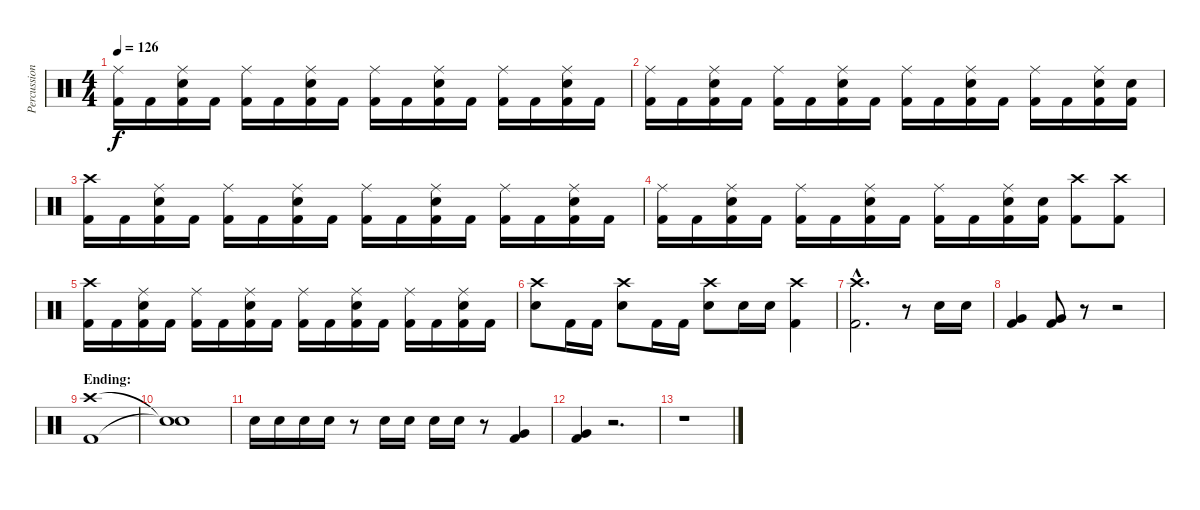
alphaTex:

\track ("Percussion" "Percussion") {instrument percussion}
\staff {score}
\articulation defaults
\ts (4 4)
\tempo 126
\clef neutral
\ks c
("Ride (middle)" "Kick (hit) 2").16{dy f} "Kick (hit) 2".16 ("Ride (middle)" "Electric Snare (hit)" "Kick (hit) 2").16 "Kick (hit) 2".16 ("Ride (middle)" "Kick (hit) 2").16 "Kick (hit) 2".16 ("Ride (middle)" "Electric Snare (hit)" "Kick (hit) 2").16 "Kick (hit) 2".16 ("Ride (middle)" "Kick (hit) 2").16 "Kick (hit) 2".16 ("Ride (middle)" "Electric Snare (hit)" "Kick (hit) 2").16 "Kick (hit) 2".16 ("Ride (middle)" "Kick (hit) 2").16 "Kick (hit) 2".16 ("Ride (middle)" "Electric Snare (hit)" "Kick (hit) 2").16 "Kick (hit) 2".16 |
("Ride (middle)" "Kick (hit) 2").16 "Kick (hit) 2".16 ("Ride (middle)" "Electric Snare (hit)" "Kick (hit) 2").16 "Kick (hit) 2".16 ("Ride (middle)" "Kick (hit) 2").16 "Kick (hit) 2".16 ("Ride (middle)" "Electric Snare (hit)" "Kick (hit) 2").16 "Kick (hit) 2".16 ("Ride (middle)" "Kick (hit) 2").16 "Kick (hit) 2".16 ("Ride (middle)" "Electric Snare (hit)" "Kick (hit) 2").16 "Kick (hit) 2".16 ("Ride (middle)" "Kick (hit) 2").16 "Kick (hit) 2".16 ("Ride (middle)" "Electric Snare (hit)" "Kick (hit) 2").16 ("Electric Snare (hit)" "Kick (hit) 2").16 |
("Crash high (hit)" "Kick (hit) 2").16 "Kick (hit) 2".16 ("Ride (middle)" "Electric Snare (hit)" "Kick (hit) 2").16 "Kick (hit) 2".16 ("Ride (middle)" "Kick (hit) 2").16 "Kick (hit) 2".16 ("Ride (middle)" "Electric Snare (hit)" "Kick (hit) 2").16 "Kick (hit) 2".16 ("Ride (middle)" "Kick (hit) 2").16 "Kick (hit) 2".16 ("Ride (middle)" "Electric Snare (hit)" "Kick (hit) 2").16 "Kick (hit) 2".16 ("Ride (middle)" "Kick (hit) 2").16 "Kick (hit) 2".16 ("Ride (middle)" "Electric Snare (hit)" "Kick (hit) 2").16 "Kick (hit) 2".16 |
("Ride (middle)" "Kick (hit) 2").16 "Kick (hit) 2".16 ("Ride (middle)" "Electric Snare (hit)" "Kick (hit) 2").16 "Kick (hit) 2".16 ("Ride (middle)" "Kick (hit) 2").16 "Kick (hit) 2".16 ("Ride (middle)" "Electric Snare (hit)" "Kick (hit) 2").16 "Kick (hit) 2".16 ("Ride (middle)" "Kick (hit) 2").16 "Kick (hit) 2".16 ("Ride (middle)" "Electric Snare (hit)" "Kick (hit) 2").16 ("Electric Snare (hit)" "Kick (hit) 2").16 ("Crash high (hit)" "Kick (hit) 2").8 ("Crash high (hit)" "Kick (hit) 2").8 |
("Crash high (hit)" "Kick (hit) 2").16 "Kick (hit) 2".16 ("Ride (middle)" "Electric Snare (hit)" "Kick (hit) 2").16 "Kick (hit) 2".16 ("Ride (middle)" "Kick (hit) 2").16 "Kick (hit) 2".16 ("Ride (middle)" "Electric Snare (hit)" "Kick (hit) 2").16 "Kick (hit) 2".16 ("Ride (middle)" "Kick (hit) 2").16 "Kick (hit) 2".16 ("Ride (middle)" "Electric Snare (hit)" "Kick (hit) 2").16 "Kick (hit) 2".16 ("Ride (middle)" "Kick (hit) 2").16 "Kick (hit) 2".16 ("Ride (middle)" "Electric Snare (hit)" "Kick (hit) 2").16 "Kick (hit) 2".16 |
("Crash high (hit)" "Electric Snare (hit)").8 "Kick (hit) 2".16 "Kick (hit) 2".16 ("Crash high (hit)" "Electric Snare (hit)").8 "Kick (hit) 2".16 "Kick (hit) 2".16 ("Crash high (hit)" "Electric Snare (hit)").8 "Electric Snare (hit)".16 "Electric Snare (hit)".16 ("Crash high (hit)" "Kick (hit) 2").4 |
("Crash high (hit)"{hac} "Kick (hit) 2"{hac}).2{d} r.8 "Electric Snare (hit)".16 "Electric Snare (hit)".16 |
("Very Low Tom (hit)" "Kick (hit) 2").4 ("Very Low Tom (hit)" "Kick (hit) 2").8 r.8 r.2 |
\section ("" "Ending:")
("Crash high (hit)" "Kick (hit) 2").1 |
("Snare (hit)"{t} "Snare (hit)"{t}).1 |
"Electric Snare (hit)".16 "Electric Snare (hit)".16 "Electric Snare (hit)".16 "Electric Snare (hit)".16 r.8 "Electric Snare (hit)".16 "Electric Snare (hit)".16 "Electric Snare (hit)".16 "Electric Snare (hit)".16 r.8 ("Very Low Tom (hit)" "Kick (hit) 2").4 |
("Very Low Tom (hit)" "Kick (hit) 2").4 r.2{d} |
r.1
